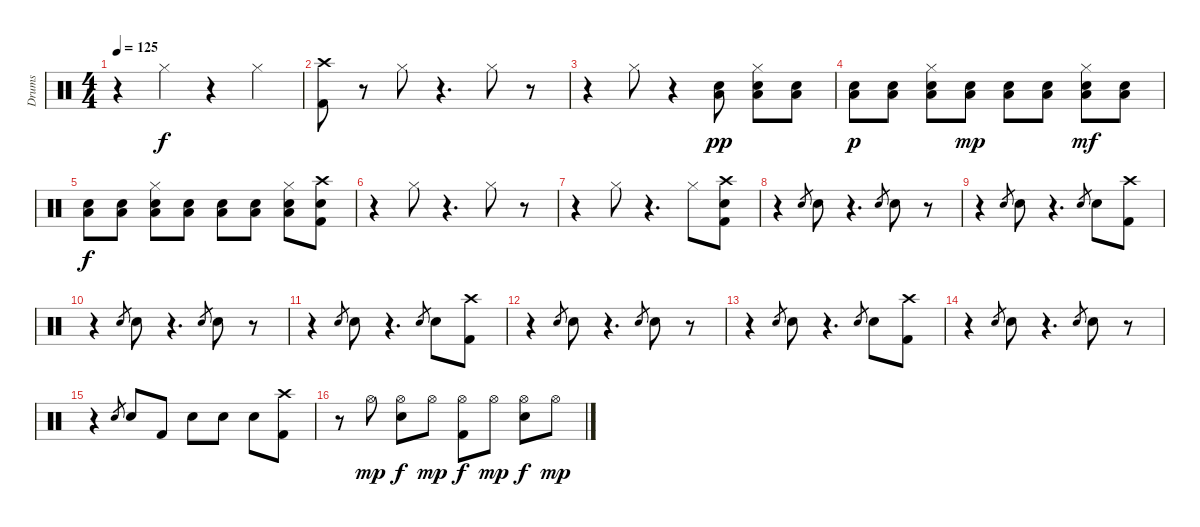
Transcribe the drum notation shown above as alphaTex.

\track ("Drums" "Drums") {instrument percussion}
\staff {score}
\articulation defaults
\ts (4 4)
\tempo 125
\clef neutral
\ks c
r.4{dy f} "Hi-Hat (closed)".4 r.4 "Hi-Hat (closed)".4 |
("Kick (hit) 2" "Crash high (hit)").8 r.8 "Hi-Hat (closed)".8 r.4{d} "Hi-Hat (closed)".8 r.8 |
r.4 "Hi-Hat (closed)".8 r.4 ("Electric Snare (hit)" "Low Tom (hit)").8{dy pp} ("Electric Snare (hit)" "Low Tom (hit)" "Hi-Hat (closed)").8 ("Electric Snare (hit)" "Low Tom (hit)").8 |
("Electric Snare (hit)" "Low Tom (hit)").8{dy p} ("Electric Snare (hit)" "Low Tom (hit)").8 ("Electric Snare (hit)" "Low Tom (hit)" "Hi-Hat (closed)").8 ("Electric Snare (hit)" "Low Tom (hit)").8{dy mp} ("Electric Snare (hit)" "Low Tom (hit)").8 ("Electric Snare (hit)" "Low Tom (hit)").8 ("Electric Snare (hit)" "Low Tom (hit)" "Hi-Hat (closed)").8{dy mf} ("Electric Snare (hit)" "Low Tom (hit)").8 |
("Electric Snare (hit)" "Low Tom (hit)").8{dy f} ("Electric Snare (hit)" "Low Tom (hit)").8 ("Electric Snare (hit)" "Low Tom (hit)" "Hi-Hat (closed)").8 ("Electric Snare (hit)" "Low Tom (hit)").8 ("Electric Snare (hit)" "Low Tom (hit)").8 ("Electric Snare (hit)" "Low Tom (hit)").8 ("Electric Snare (hit)" "Low Tom (hit)" "Hi-Hat (closed)").8 ("Kick (hit) 2" "Electric Snare (hit)" "Crash high (hit)").8 |
r.4 "Hi-Hat (closed)".8 r.4{d} "Hi-Hat (closed)".8 r.8 |
r.4 "Hi-Hat (closed)".8 r.4{d} "Hi-Hat (closed)".8 ("Kick (hit) 2" "Electric Snare (hit)" "Crash high (hit)").8 |
r.4 "Electric Snare (hit)".8{gr} "Snare (hit) 2".8 r.4{d} "Electric Snare (hit)".8{gr} "Snare (hit) 2".8 r.8 |
r.4 "Electric Snare (hit)".8{gr} "Snare (hit) 2".8 r.4{d} "Electric Snare (hit)".8{gr} "Snare (hit) 2".8 ("Kick (hit) 2" "Crash high (hit)").8 |
r.4 "Electric Snare (hit)".8{gr} "Snare (hit) 2".8 r.4{d} "Electric Snare (hit)".8{gr} "Snare (hit) 2".8 r.8 |
r.4 "Electric Snare (hit)".8{gr} "Snare (hit) 2".8 r.4{d} "Electric Snare (hit)".8{gr} "Snare (hit) 2".8 ("Kick (hit) 2" "Crash high (hit)").8 |
r.4 "Electric Snare (hit)".8{gr} "Snare (hit) 2".8 r.4{d} "Electric Snare (hit)".8{gr} "Snare (hit) 2".8 r.8 |
r.4 "Electric Snare (hit)".8{gr} "Snare (hit) 2".8 r.4{d} "Electric Snare (hit)".8{gr} "Snare (hit) 2".8 ("Kick (hit) 2" "Crash high (hit)").8 |
r.4 "Electric Snare (hit)".8{gr} "Snare (hit) 2".8 r.4{d} "Electric Snare (hit)".8{gr} "Snare (hit) 2".8 r.8 |
r.4 "Electric Snare (hit)".8{gr} "Snare (hit) 2".8 "Kick (hit) 2".8 "Electric Snare (hit)".8 "Electric Snare (hit)".8 "Electric Snare (hit)".8 ("Kick (hit) 2" "Crash high (hit)").8 |
r.8 "Hi-Hat (open)".8{dy mp} ("Electric Snare (hit)" "Hi-Hat (open)").8{dy f} "Hi-Hat (open)".8{dy mp} ("Kick (hit) 2" "Hi-Hat (open)").8{dy f} "Hi-Hat (open)".8{dy mp} ("Electric Snare (hit)" "Hi-Hat (open)").8{dy f} "Hi-Hat (open)".8{dy mp}
